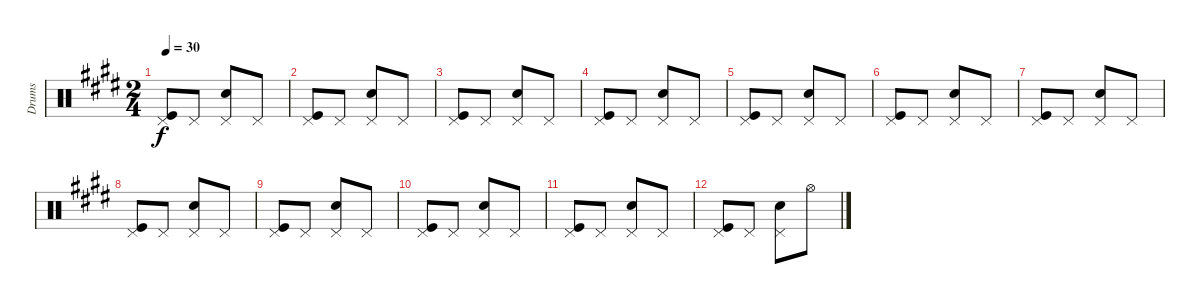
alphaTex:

\track ("Drums" "Drums") {instrument percussion}
\staff {score}
\articulation defaults
\ts (2 4)
\tempo 30
\clef neutral
\ks c#minor
("Pedal Hi-Hat (hit)" "Kick (hit)").8{dy f} "Pedal Hi-Hat (hit)".8 ("Pedal Hi-Hat (hit)" "Snare (hit) 2").8 "Pedal Hi-Hat (hit)".8 |
("Pedal Hi-Hat (hit)" "Kick (hit)").8 "Pedal Hi-Hat (hit)".8 ("Pedal Hi-Hat (hit)" "Snare (hit) 2").8 "Pedal Hi-Hat (hit)".8 |
("Pedal Hi-Hat (hit)" "Kick (hit)").8 "Pedal Hi-Hat (hit)".8 ("Pedal Hi-Hat (hit)" "Snare (hit) 2").8 "Pedal Hi-Hat (hit)".8 |
("Pedal Hi-Hat (hit)" "Kick (hit)").8 "Pedal Hi-Hat (hit)".8 ("Pedal Hi-Hat (hit)" "Snare (hit) 2").8 "Pedal Hi-Hat (hit)".8 |
("Pedal Hi-Hat (hit)" "Kick (hit)").8 "Pedal Hi-Hat (hit)".8 ("Pedal Hi-Hat (hit)" "Snare (hit) 2").8 "Pedal Hi-Hat (hit)".8 |
("Pedal Hi-Hat (hit)" "Kick (hit)").8 "Pedal Hi-Hat (hit)".8 ("Pedal Hi-Hat (hit)" "Snare (hit) 2").8 "Pedal Hi-Hat (hit)".8 |
("Pedal Hi-Hat (hit)" "Kick (hit)").8 "Pedal Hi-Hat (hit)".8 ("Pedal Hi-Hat (hit)" "Snare (hit) 2").8 "Pedal Hi-Hat (hit)".8 |
("Pedal Hi-Hat (hit)" "Kick (hit)").8 "Pedal Hi-Hat (hit)".8 ("Pedal Hi-Hat (hit)" "Snare (hit) 2").8 "Pedal Hi-Hat (hit)".8 |
("Pedal Hi-Hat (hit)" "Kick (hit)").8 "Pedal Hi-Hat (hit)".8 ("Pedal Hi-Hat (hit)" "Snare (hit) 2").8 "Pedal Hi-Hat (hit)".8 |
("Pedal Hi-Hat (hit)" "Kick (hit)").8 "Pedal Hi-Hat (hit)".8 ("Pedal Hi-Hat (hit)" "Snare (hit) 2").8 "Pedal Hi-Hat (hit)".8 |
("Pedal Hi-Hat (hit)" "Kick (hit)").8 "Pedal Hi-Hat (hit)".8 ("Pedal Hi-Hat (hit)" "Snare (hit) 2").8 "Pedal Hi-Hat (hit)".8 |
("Pedal Hi-Hat (hit)" "Kick (hit)").8 "Pedal Hi-Hat (hit)".8 ("Pedal Hi-Hat (hit)" "Snare (hit) 2").8 "Hi-Hat (open)".8
